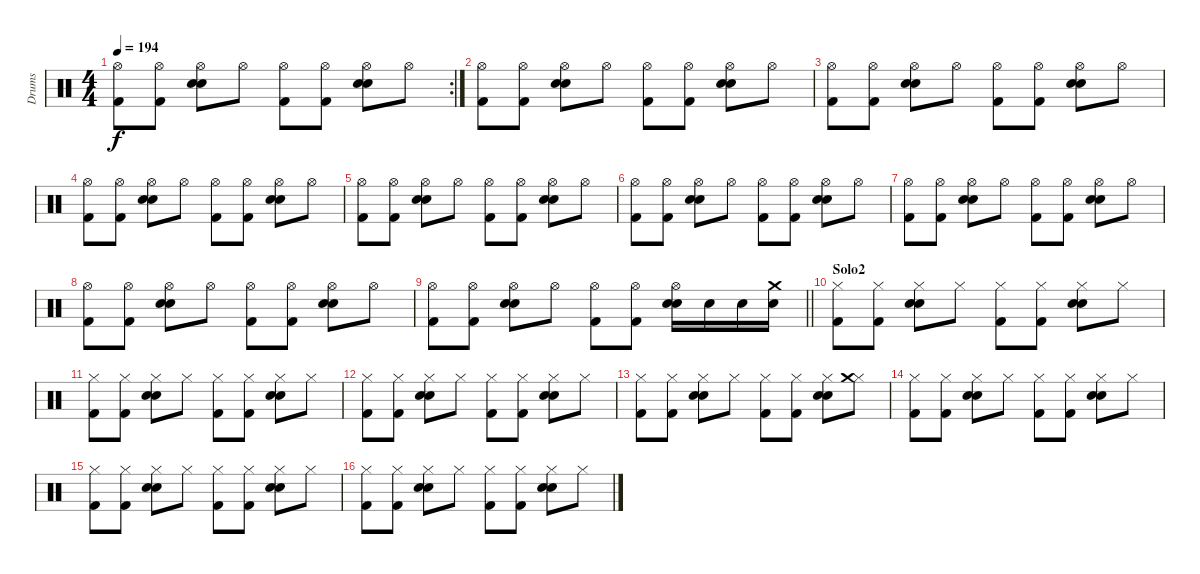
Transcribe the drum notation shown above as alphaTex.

\track ("Drums" "Drums") {solo instrument percussion}
\staff {score}
\articulation defaults
\rc 2
\ts (4 4)
\tempo 194
\clef neutral
\ks c
("Hi-Hat (open)" "Kick (hit) 2").8{dy f} ("Hi-Hat (open)" "Kick (hit) 2").8 ("Hi-Hat (open)" "Electric Snare (hit)" "Snare (hit) 2").8 "Hi-Hat (open)".8 ("Hi-Hat (open)" "Kick (hit) 2").8 ("Hi-Hat (open)" "Kick (hit) 2").8 ("Hi-Hat (open)" "Electric Snare (hit)" "Snare (hit) 2").8 "Hi-Hat (open)".8 |
("Hi-Hat (open)" "Kick (hit) 2").8 ("Hi-Hat (open)" "Kick (hit) 2").8 ("Hi-Hat (open)" "Electric Snare (hit)" "Snare (hit) 2").8 "Hi-Hat (open)".8 ("Hi-Hat (open)" "Kick (hit) 2").8 ("Hi-Hat (open)" "Kick (hit) 2").8 ("Hi-Hat (open)" "Electric Snare (hit)" "Snare (hit) 2").8 "Hi-Hat (open)".8 |
("Hi-Hat (open)" "Kick (hit) 2").8 ("Hi-Hat (open)" "Kick (hit) 2").8 ("Hi-Hat (open)" "Electric Snare (hit)" "Snare (hit) 2").8 "Hi-Hat (open)".8 ("Hi-Hat (open)" "Kick (hit) 2").8 ("Hi-Hat (open)" "Kick (hit) 2").8 ("Hi-Hat (open)" "Electric Snare (hit)" "Snare (hit) 2").8 "Hi-Hat (open)".8 |
("Hi-Hat (open)" "Kick (hit) 2").8 ("Hi-Hat (open)" "Kick (hit) 2").8 ("Hi-Hat (open)" "Electric Snare (hit)" "Snare (hit) 2").8 "Hi-Hat (open)".8 ("Hi-Hat (open)" "Kick (hit) 2").8 ("Hi-Hat (open)" "Kick (hit) 2").8 ("Hi-Hat (open)" "Electric Snare (hit)" "Snare (hit) 2").8 "Hi-Hat (open)".8 |
("Hi-Hat (open)" "Kick (hit) 2").8 ("Hi-Hat (open)" "Kick (hit) 2").8 ("Hi-Hat (open)" "Electric Snare (hit)" "Snare (hit) 2").8 "Hi-Hat (open)".8 ("Hi-Hat (open)" "Kick (hit) 2").8 ("Hi-Hat (open)" "Kick (hit) 2").8 ("Hi-Hat (open)" "Electric Snare (hit)" "Snare (hit) 2").8 "Hi-Hat (open)".8 |
("Hi-Hat (open)" "Kick (hit) 2").8 ("Hi-Hat (open)" "Kick (hit) 2").8 ("Hi-Hat (open)" "Electric Snare (hit)" "Snare (hit) 2").8 "Hi-Hat (open)".8 ("Hi-Hat (open)" "Kick (hit) 2").8 ("Hi-Hat (open)" "Kick (hit) 2").8 ("Hi-Hat (open)" "Electric Snare (hit)" "Snare (hit) 2").8 "Hi-Hat (open)".8 |
("Hi-Hat (open)" "Kick (hit) 2").8 ("Hi-Hat (open)" "Kick (hit) 2").8 ("Hi-Hat (open)" "Electric Snare (hit)" "Snare (hit) 2").8 "Hi-Hat (open)".8 ("Hi-Hat (open)" "Kick (hit) 2").8 ("Hi-Hat (open)" "Kick (hit) 2").8 ("Hi-Hat (open)" "Electric Snare (hit)" "Snare (hit) 2").8 "Hi-Hat (open)".8 |
("Hi-Hat (open)" "Kick (hit) 2").8 ("Hi-Hat (open)" "Kick (hit) 2").8 ("Hi-Hat (open)" "Electric Snare (hit)" "Snare (hit) 2").8 "Hi-Hat (open)".8 ("Hi-Hat (open)" "Kick (hit) 2").8 ("Hi-Hat (open)" "Kick (hit) 2").8 ("Hi-Hat (open)" "Electric Snare (hit)" "Snare (hit) 2").8 "Hi-Hat (open)".8 |
\barLineRight lightlight
("Hi-Hat (open)" "Kick (hit) 2").8 ("Hi-Hat (open)" "Kick (hit) 2").8 ("Hi-Hat (open)" "Electric Snare (hit)" "Snare (hit) 2").8 "Hi-Hat (open)".8 ("Hi-Hat (open)" "Kick (hit) 2").8 ("Hi-Hat (open)" "Kick (hit) 2").8 ("Hi-Hat (open)" "Electric Snare (hit)" "Snare (hit) 2").16 "Snare (hit) 2".16 "Snare (hit) 2".16 ("Crash medium (hit)" "Snare (hit) 2").16 |
\section ("" "Solo2")
("Hi-Hat (closed)" "Kick (hit) 2").8 ("Hi-Hat (closed)" "Kick (hit) 2").8 ("Hi-Hat (closed)" "Electric Snare (hit)" "Snare (hit) 2").8 "Hi-Hat (closed)".8 ("Hi-Hat (closed)" "Kick (hit) 2").8 ("Hi-Hat (closed)" "Kick (hit) 2").8 ("Hi-Hat (closed)" "Electric Snare (hit)" "Snare (hit) 2").8 "Hi-Hat (closed)".8 |
("Hi-Hat (closed)" "Kick (hit) 2").8 ("Hi-Hat (closed)" "Kick (hit) 2").8 ("Hi-Hat (closed)" "Electric Snare (hit)" "Snare (hit) 2").8 "Hi-Hat (closed)".8 ("Hi-Hat (closed)" "Kick (hit) 2").8 ("Hi-Hat (closed)" "Kick (hit) 2").8 ("Hi-Hat (closed)" "Electric Snare (hit)" "Snare (hit) 2").8 "Hi-Hat (closed)".8 |
("Hi-Hat (closed)" "Kick (hit) 2").8 ("Hi-Hat (closed)" "Kick (hit) 2").8 ("Hi-Hat (closed)" "Electric Snare (hit)" "Snare (hit) 2").8 "Hi-Hat (closed)".8 ("Hi-Hat (closed)" "Kick (hit) 2").8 ("Hi-Hat (closed)" "Kick (hit) 2").8 ("Hi-Hat (closed)" "Electric Snare (hit)" "Snare (hit) 2").8 "Hi-Hat (closed)".8 |
("Hi-Hat (closed)" "Kick (hit) 2").8 ("Hi-Hat (closed)" "Kick (hit) 2").8 ("Hi-Hat (closed)" "Electric Snare (hit)" "Snare (hit) 2").8 "Hi-Hat (closed)".8 ("Hi-Hat (closed)" "Kick (hit) 2").8 ("Hi-Hat (closed)" "Kick (hit) 2").8 ("Hi-Hat (closed)" "Electric Snare (hit)" "Snare (hit) 2").8 ("Hi-Hat (closed)" "Crash medium (hit)").8 |
("Hi-Hat (closed)" "Kick (hit) 2").8 ("Hi-Hat (closed)" "Kick (hit) 2").8 ("Hi-Hat (closed)" "Electric Snare (hit)" "Snare (hit) 2").8 "Hi-Hat (closed)".8 ("Hi-Hat (closed)" "Kick (hit) 2").8 ("Hi-Hat (closed)" "Kick (hit) 2").8 ("Hi-Hat (closed)" "Electric Snare (hit)" "Snare (hit) 2").8 "Hi-Hat (closed)".8 |
("Hi-Hat (closed)" "Kick (hit) 2").8 ("Hi-Hat (closed)" "Kick (hit) 2").8 ("Hi-Hat (closed)" "Electric Snare (hit)" "Snare (hit) 2").8 "Hi-Hat (closed)".8 ("Hi-Hat (closed)" "Kick (hit) 2").8 ("Hi-Hat (closed)" "Kick (hit) 2").8 ("Hi-Hat (closed)" "Electric Snare (hit)" "Snare (hit) 2").8 "Hi-Hat (closed)".8 |
("Hi-Hat (closed)" "Kick (hit) 2").8 ("Hi-Hat (closed)" "Kick (hit) 2").8 ("Hi-Hat (closed)" "Electric Snare (hit)" "Snare (hit) 2").8 "Hi-Hat (closed)".8 ("Hi-Hat (closed)" "Kick (hit) 2").8 ("Hi-Hat (closed)" "Kick (hit) 2").8 ("Hi-Hat (closed)" "Electric Snare (hit)" "Snare (hit) 2").8 "Hi-Hat (closed)".8
